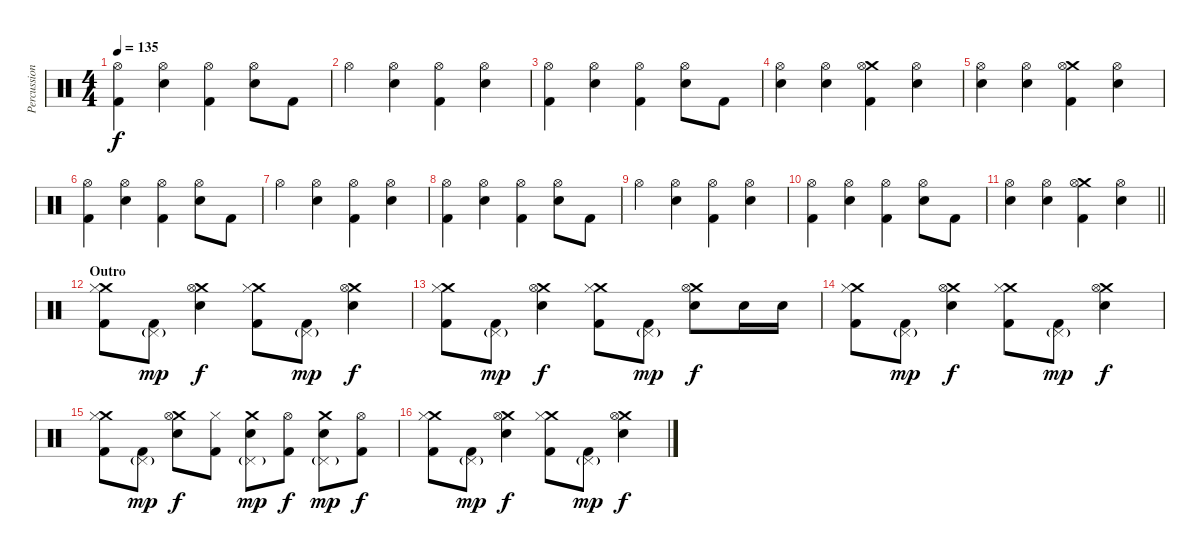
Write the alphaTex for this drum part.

\track ("Percussion" "Percussion") {instrument percussion}
\staff {score}
\articulation defaults
\ts (4 4)
\tempo 135
\clef neutral
\ks c
("Hi-Hat (open)" "Kick (hit) 2").4{dy f} ("Hi-Hat (open)" "Electric Snare (hit)").4 ("Hi-Hat (open)" "Kick (hit) 2").4 ("Hi-Hat (open)" "Electric Snare (hit)").8 "Kick (hit) 2".8 |
"Hi-Hat (open)".4 ("Hi-Hat (open)" "Electric Snare (hit)").4 ("Hi-Hat (open)" "Kick (hit) 2").4 ("Hi-Hat (open)" "Electric Snare (hit)").4 |
("Hi-Hat (open)" "Kick (hit) 2").4 ("Hi-Hat (open)" "Electric Snare (hit)").4 ("Hi-Hat (open)" "Kick (hit) 2").4 ("Hi-Hat (open)" "Electric Snare (hit)").8 "Kick (hit) 2".8 |
("Hi-Hat (open)" "Electric Snare (hit)").4 ("Hi-Hat (open)" "Electric Snare (hit)").4 ("Crash medium (hit)" "Hi-Hat (open)" "Kick (hit) 2").4 ("Hi-Hat (open)" "Electric Snare (hit)").4 |
("Hi-Hat (open)" "Electric Snare (hit)").4 ("Hi-Hat (open)" "Electric Snare (hit)").4 ("Crash medium (hit)" "Hi-Hat (open)" "Kick (hit) 2").4 ("Hi-Hat (open)" "Electric Snare (hit)").4 |
("Hi-Hat (open)" "Kick (hit) 2").4 ("Hi-Hat (open)" "Electric Snare (hit)").4 ("Hi-Hat (open)" "Kick (hit) 2").4 ("Hi-Hat (open)" "Electric Snare (hit)").8 "Kick (hit) 2".8 |
"Hi-Hat (open)".4 ("Hi-Hat (open)" "Electric Snare (hit)").4 ("Hi-Hat (open)" "Kick (hit) 2").4 ("Hi-Hat (open)" "Electric Snare (hit)").4 |
("Hi-Hat (open)" "Kick (hit) 2").4 ("Hi-Hat (open)" "Electric Snare (hit)").4 ("Hi-Hat (open)" "Kick (hit) 2").4 ("Hi-Hat (open)" "Electric Snare (hit)").8 "Kick (hit) 2".8 |
"Hi-Hat (open)".4 ("Hi-Hat (open)" "Electric Snare (hit)").4 ("Hi-Hat (open)" "Kick (hit) 2").4 ("Hi-Hat (open)" "Electric Snare (hit)").4 |
("Hi-Hat (open)" "Kick (hit) 2").4 ("Hi-Hat (open)" "Electric Snare (hit)").4 ("Hi-Hat (open)" "Kick (hit) 2").4 ("Hi-Hat (open)" "Electric Snare (hit)").8 "Kick (hit) 2".8 |
\barLineRight lightlight
("Hi-Hat (open)" "Electric Snare (hit)").4 ("Hi-Hat (open)" "Electric Snare (hit)").4 ("Crash medium (hit)" "Hi-Hat (open)" "Kick (hit) 2").4 ("Hi-Hat (open)" "Electric Snare (hit)").4 |
\section ("" "Outro")
("Crash medium (hit)" "Hi-Hat (closed)" "Kick (hit) 2").8 ("Pedal Hi-Hat (hit)"{g} "Kick (hit) 2").8{dy mp} ("Crash medium (hit)" "Hi-Hat (open)" "Electric Snare (hit)").4{dy f} ("Crash medium (hit)" "Hi-Hat (closed)" "Kick (hit) 2").8 ("Pedal Hi-Hat (hit)"{g} "Kick (hit) 2").8{dy mp} ("Crash medium (hit)" "Hi-Hat (open)" "Electric Snare (hit)").4{dy f} |
("Crash medium (hit)" "Hi-Hat (closed)" "Kick (hit) 2").8 ("Pedal Hi-Hat (hit)"{g} "Kick (hit) 2").8{dy mp} ("Crash medium (hit)" "Hi-Hat (open)" "Electric Snare (hit)").4{dy f} ("Crash medium (hit)" "Hi-Hat (closed)" "Kick (hit) 2").8 ("Pedal Hi-Hat (hit)"{g} "Kick (hit) 2").8{dy mp} ("Crash medium (hit)" "Hi-Hat (open)" "Electric Snare (hit)").8{dy f} "Electric Snare (hit)".16 "Electric Snare (hit)".16 |
("Crash medium (hit)" "Hi-Hat (closed)" "Kick (hit) 2").8 ("Pedal Hi-Hat (hit)"{g} "Kick (hit) 2").8{dy mp} ("Crash medium (hit)" "Hi-Hat (open)" "Electric Snare (hit)").4{dy f} ("Crash medium (hit)" "Hi-Hat (closed)" "Kick (hit) 2").8 ("Pedal Hi-Hat (hit)"{g} "Kick (hit) 2").8{dy mp} ("Crash medium (hit)" "Hi-Hat (open)" "Electric Snare (hit)").4{dy f} |
("Crash medium (hit)" "Hi-Hat (closed)" "Kick (hit) 2").8 ("Pedal Hi-Hat (hit)"{g} "Kick (hit) 2").8{dy mp} ("Crash medium (hit)" "Hi-Hat (open)" "Electric Snare (hit)").8{dy f} ("Hi-Hat (closed)" "Kick (hit) 2").8 ("Crash medium (hit)" "Pedal Hi-Hat (hit)"{g} "Electric Snare (hit)").8{dy mp} ("Hi-Hat (open)" "Kick (hit) 2").8{dy f} ("Crash medium (hit)" "Pedal Hi-Hat (hit)"{g} "Electric Snare (hit)").8{dy mp} ("Hi-Hat (open)" "Kick (hit) 2").8{dy f} |
("Crash medium (hit)" "Hi-Hat (closed)" "Kick (hit) 2").8 ("Pedal Hi-Hat (hit)"{g} "Kick (hit) 2").8{dy mp} ("Crash medium (hit)" "Hi-Hat (open)" "Electric Snare (hit)").4{dy f} ("Crash medium (hit)" "Hi-Hat (closed)" "Kick (hit) 2").8 ("Pedal Hi-Hat (hit)"{g} "Kick (hit) 2").8{dy mp} ("Crash medium (hit)" "Hi-Hat (open)" "Electric Snare (hit)").4{dy f}
